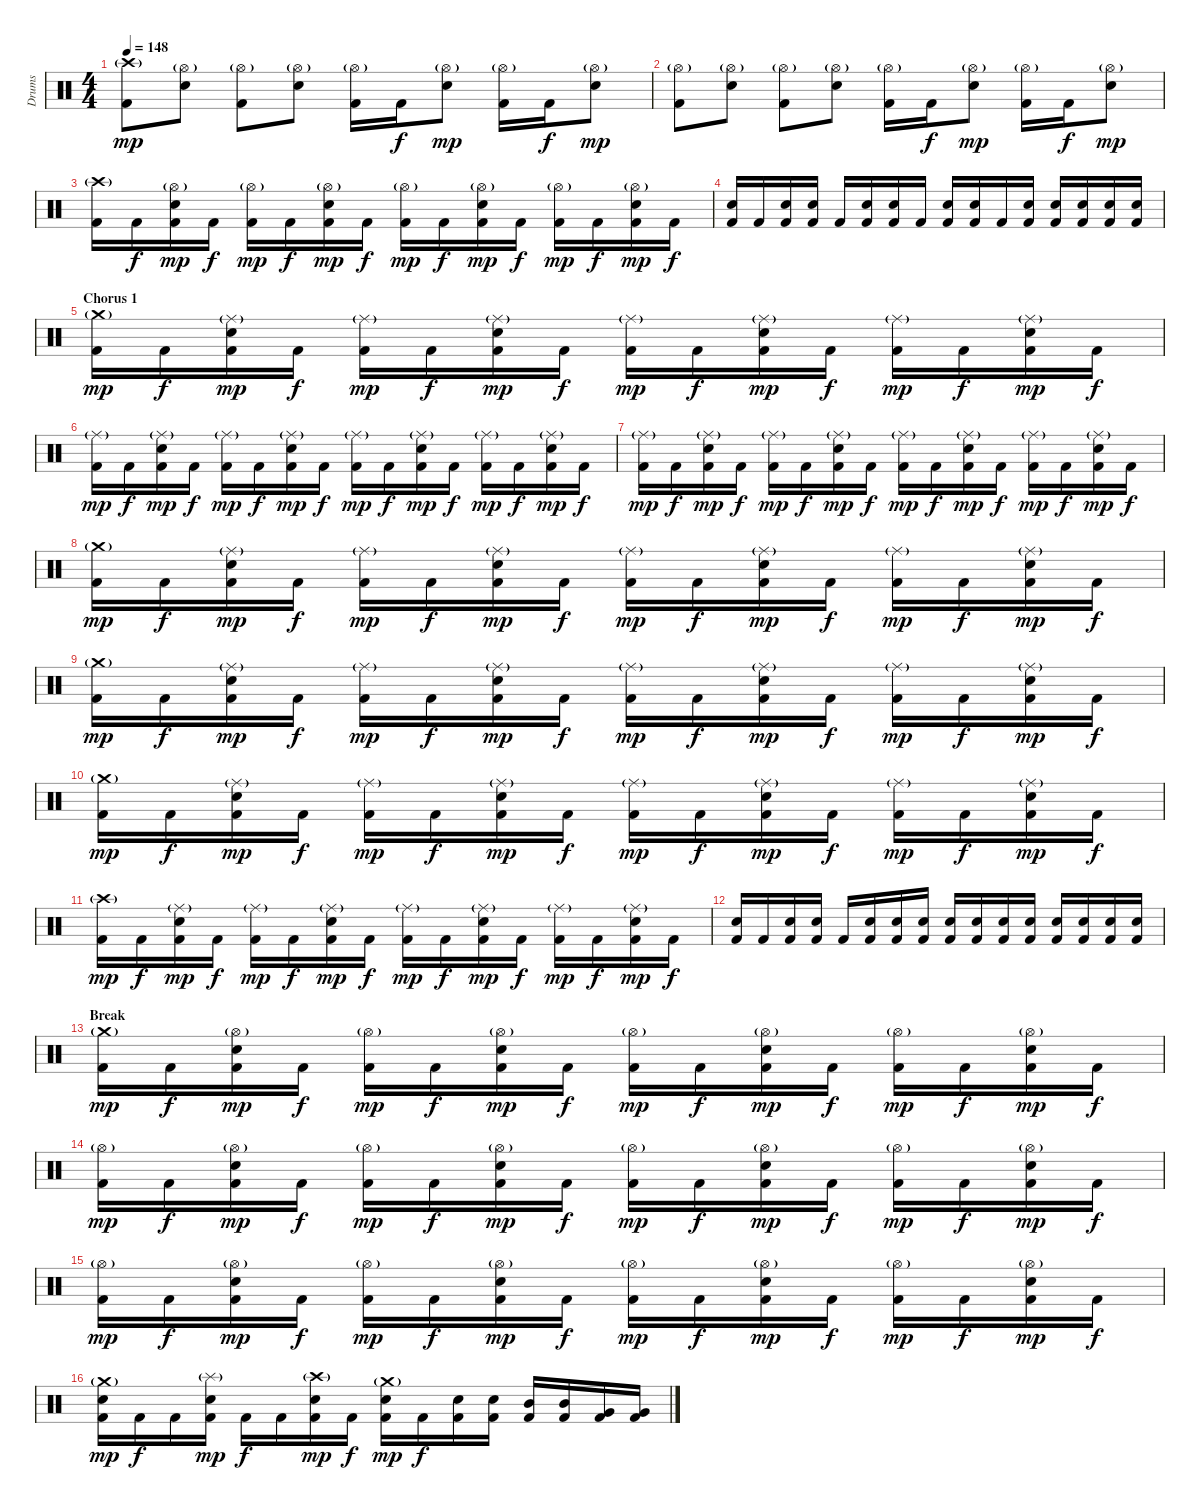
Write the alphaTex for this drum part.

\track ("Drums" "Drums") {instrument percussion}
\staff {score}
\articulation defaults
\ts (4 4)
\tempo 148
\clef neutral
\ks c
("Crash high (hit)"{g} "Kick (hit) 2").8{dy mp} ("Hi-Hat (open)"{g} "Snare (hit) 2").8 ("Hi-Hat (open)"{g} "Kick (hit) 2").8 ("Hi-Hat (open)"{g} "Snare (hit) 2").8 ("Hi-Hat (open)"{g} "Kick (hit) 2").16 "Kick (hit) 2".16{dy f} ("Hi-Hat (open)"{g} "Snare (hit) 2").8{dy mp} ("Hi-Hat (open)"{g} "Kick (hit) 2").16 "Kick (hit) 2".16{dy f} ("Hi-Hat (open)"{g} "Snare (hit) 2").8{dy mp} |
("Hi-Hat (open)"{g} "Kick (hit) 2").8 ("Hi-Hat (open)"{g} "Snare (hit) 2").8 ("Hi-Hat (open)"{g} "Kick (hit) 2").8 ("Hi-Hat (open)"{g} "Snare (hit) 2").8 ("Hi-Hat (open)"{g} "Kick (hit) 2").16 "Kick (hit) 2".16{dy f} ("Hi-Hat (open)"{g} "Snare (hit) 2").8{dy mp} ("Hi-Hat (open)"{g} "Kick (hit) 2").16 "Kick (hit) 2".16{dy f} ("Hi-Hat (open)"{g} "Snare (hit) 2").8{dy mp} |
("Crash high (hit)"{g} "Kick (hit) 2").16 "Kick (hit) 2".16{dy f} ("Hi-Hat (open)"{g} "Snare (hit) 2" "Kick (hit) 2").16{dy mp} "Kick (hit) 2".16{dy f} ("Hi-Hat (open)"{g} "Kick (hit) 2").16{dy mp} "Kick (hit) 2".16{dy f} ("Hi-Hat (open)"{g} "Snare (hit) 2" "Kick (hit) 2").16{dy mp} "Kick (hit) 2".16{dy f} ("Hi-Hat (open)"{g} "Kick (hit) 2").16{dy mp} "Kick (hit) 2".16{dy f} ("Hi-Hat (open)"{g} "Snare (hit) 2" "Kick (hit) 2").16{dy mp} "Kick (hit) 2".16{dy f} ("Hi-Hat (open)"{g} "Kick (hit) 2").16{dy mp} "Kick (hit) 2".16{dy f} ("Hi-Hat (open)"{g} "Snare (hit) 2" "Kick (hit) 2").16{dy mp} "Kick (hit) 2".16{dy f} |
("Snare (hit) 2" "Kick (hit) 2").16 "Kick (hit) 2".16 ("Snare (hit) 2" "Kick (hit) 2").16 ("Snare (hit) 2" "Kick (hit) 2").16 "Kick (hit) 2".16 ("Snare (hit) 2" "Kick (hit) 2").16 ("Snare (hit) 2" "Kick (hit) 2").16 "Kick (hit) 2".16 ("Snare (hit) 2" "Kick (hit) 2").16 ("Snare (hit) 2" "Kick (hit) 2").16 "Kick (hit) 2".16 ("Snare (hit) 2" "Kick (hit) 2").16 ("Snare (hit) 2" "Kick (hit) 2").16 ("Snare (hit) 2" "Kick (hit) 2").16 ("Snare (hit) 2" "Kick (hit) 2").16 ("Snare (hit) 2" "Kick (hit) 2").16 |
\section ("" "Chorus 1")
("Crash medium (hit)"{g} "Kick (hit) 2").16{dy mp} "Kick (hit) 2".16{dy f} ("Ride (middle)"{g} "Snare (hit) 2" "Kick (hit) 2").16{dy mp} "Kick (hit) 2".16{dy f} ("Ride (middle)"{g} "Kick (hit) 2").16{dy mp} "Kick (hit) 2".16{dy f} ("Ride (middle)"{g} "Snare (hit) 2" "Kick (hit) 2").16{dy mp} "Kick (hit) 2".16{dy f} ("Ride (middle)"{g} "Kick (hit) 2").16{dy mp} "Kick (hit) 2".16{dy f} ("Ride (middle)"{g} "Snare (hit) 2" "Kick (hit) 2").16{dy mp} "Kick (hit) 2".16{dy f} ("Ride (middle)"{g} "Kick (hit) 2").16{dy mp} "Kick (hit) 2".16{dy f} ("Ride (middle)"{g} "Snare (hit) 2" "Kick (hit) 2").16{dy mp} "Kick (hit) 2".16{dy f} |
("Ride (middle)"{g} "Kick (hit) 2").16{dy mp} "Kick (hit) 2".16{dy f} ("Ride (middle)"{g} "Snare (hit) 2" "Kick (hit) 2").16{dy mp} "Kick (hit) 2".16{dy f} ("Ride (middle)"{g} "Kick (hit) 2").16{dy mp} "Kick (hit) 2".16{dy f} ("Ride (middle)"{g} "Snare (hit) 2" "Kick (hit) 2").16{dy mp} "Kick (hit) 2".16{dy f} ("Ride (middle)"{g} "Kick (hit) 2").16{dy mp} "Kick (hit) 2".16{dy f} ("Ride (middle)"{g} "Snare (hit) 2" "Kick (hit) 2").16{dy mp} "Kick (hit) 2".16{dy f} ("Ride (middle)"{g} "Kick (hit) 2").16{dy mp} "Kick (hit) 2".16{dy f} ("Ride (middle)"{g} "Snare (hit) 2" "Kick (hit) 2").16{dy mp} "Kick (hit) 2".16{dy f} |
("Ride (middle)"{g} "Kick (hit) 2").16{dy mp} "Kick (hit) 2".16{dy f} ("Ride (middle)"{g} "Snare (hit) 2" "Kick (hit) 2").16{dy mp} "Kick (hit) 2".16{dy f} ("Ride (middle)"{g} "Kick (hit) 2").16{dy mp} "Kick (hit) 2".16{dy f} ("Ride (middle)"{g} "Snare (hit) 2" "Kick (hit) 2").16{dy mp} "Kick (hit) 2".16{dy f} ("Ride (middle)"{g} "Kick (hit) 2").16{dy mp} "Kick (hit) 2".16{dy f} ("Ride (middle)"{g} "Snare (hit) 2" "Kick (hit) 2").16{dy mp} "Kick (hit) 2".16{dy f} ("Ride (middle)"{g} "Kick (hit) 2").16{dy mp} "Kick (hit) 2".16{dy f} ("Ride (middle)"{g} "Snare (hit) 2" "Kick (hit) 2").16{dy mp} "Kick (hit) 2".16{dy f} |
("Crash medium (hit)"{g} "Kick (hit) 2").16{dy mp} "Kick (hit) 2".16{dy f} ("Ride (middle)"{g} "Snare (hit) 2" "Kick (hit) 2").16{dy mp} "Kick (hit) 2".16{dy f} ("Ride (middle)"{g} "Kick (hit) 2").16{dy mp} "Kick (hit) 2".16{dy f} ("Ride (middle)"{g} "Snare (hit) 2" "Kick (hit) 2").16{dy mp} "Kick (hit) 2".16{dy f} ("Ride (middle)"{g} "Kick (hit) 2").16{dy mp} "Kick (hit) 2".16{dy f} ("Ride (middle)"{g} "Snare (hit) 2" "Kick (hit) 2").16{dy mp} "Kick (hit) 2".16{dy f} ("Ride (middle)"{g} "Kick (hit) 2").16{dy mp} "Kick (hit) 2".16{dy f} ("Ride (middle)"{g} "Snare (hit) 2" "Kick (hit) 2").16{dy mp} "Kick (hit) 2".16{dy f} |
("Crash medium (hit)"{g} "Kick (hit) 2").16{dy mp} "Kick (hit) 2".16{dy f} ("Ride (middle)"{g} "Snare (hit) 2" "Kick (hit) 2").16{dy mp} "Kick (hit) 2".16{dy f} ("Ride (middle)"{g} "Kick (hit) 2").16{dy mp} "Kick (hit) 2".16{dy f} ("Ride (middle)"{g} "Snare (hit) 2" "Kick (hit) 2").16{dy mp} "Kick (hit) 2".16{dy f} ("Ride (middle)"{g} "Kick (hit) 2").16{dy mp} "Kick (hit) 2".16{dy f} ("Ride (middle)"{g} "Snare (hit) 2" "Kick (hit) 2").16{dy mp} "Kick (hit) 2".16{dy f} ("Ride (middle)"{g} "Kick (hit) 2").16{dy mp} "Kick (hit) 2".16{dy f} ("Ride (middle)"{g} "Snare (hit) 2" "Kick (hit) 2").16{dy mp} "Kick (hit) 2".16{dy f} |
("Crash medium (hit)"{g} "Kick (hit) 2").16{dy mp} "Kick (hit) 2".16{dy f} ("Ride (middle)"{g} "Snare (hit) 2" "Kick (hit) 2").16{dy mp} "Kick (hit) 2".16{dy f} ("Ride (middle)"{g} "Kick (hit) 2").16{dy mp} "Kick (hit) 2".16{dy f} ("Ride (middle)"{g} "Snare (hit) 2" "Kick (hit) 2").16{dy mp} "Kick (hit) 2".16{dy f} ("Ride (middle)"{g} "Kick (hit) 2").16{dy mp} "Kick (hit) 2".16{dy f} ("Ride (middle)"{g} "Snare (hit) 2" "Kick (hit) 2").16{dy mp} "Kick (hit) 2".16{dy f} ("Ride (middle)"{g} "Kick (hit) 2").16{dy mp} "Kick (hit) 2".16{dy f} ("Ride (middle)"{g} "Snare (hit) 2" "Kick (hit) 2").16{dy mp} "Kick (hit) 2".16{dy f} |
("Crash high (hit)"{g} "Kick (hit) 2").16{dy mp} "Kick (hit) 2".16{dy f} ("Ride (middle)"{g} "Snare (hit) 2" "Kick (hit) 2").16{dy mp} "Kick (hit) 2".16{dy f} ("Ride (middle)"{g} "Kick (hit) 2").16{dy mp} "Kick (hit) 2".16{dy f} ("Ride (middle)"{g} "Snare (hit) 2" "Kick (hit) 2").16{dy mp} "Kick (hit) 2".16{dy f} ("Ride (middle)"{g} "Kick (hit) 2").16{dy mp} "Kick (hit) 2".16{dy f} ("Ride (middle)"{g} "Snare (hit) 2" "Kick (hit) 2").16{dy mp} "Kick (hit) 2".16{dy f} ("Ride (middle)"{g} "Kick (hit) 2").16{dy mp} "Kick (hit) 2".16{dy f} ("Ride (middle)"{g} "Snare (hit) 2" "Kick (hit) 2").16{dy mp} "Kick (hit) 2".16{dy f} |
("Snare (hit) 2" "Kick (hit) 2").16 "Kick (hit) 2".16 ("Snare (hit) 2" "Kick (hit) 2").16 ("Snare (hit) 2" "Kick (hit) 2").16 "Kick (hit) 2".16 ("Snare (hit) 2" "Kick (hit) 2").16 ("Snare (hit) 2" "Kick (hit) 2").16 ("Snare (hit) 2" "Kick (hit) 2").16 ("Snare (hit) 2" "Kick (hit) 2").16 ("Snare (hit) 2" "Kick (hit) 2").16 ("Snare (hit) 2" "Kick (hit) 2").16 ("Snare (hit) 2" "Kick (hit) 2").16 ("Snare (hit) 2" "Kick (hit) 2").16 ("Snare (hit) 2" "Kick (hit) 2").16 ("Snare (hit) 2" "Kick (hit) 2").16 ("Snare (hit) 2" "Kick (hit) 2").16 |
\section ("" "Break")
("Crash medium (hit)"{g} "Kick (hit) 2").16{dy mp} "Kick (hit) 2".16{dy f} ("Hi-Hat (open)"{g} "Snare (hit) 2" "Kick (hit) 2").16{dy mp} "Kick (hit) 2".16{dy f} ("Hi-Hat (open)"{g} "Kick (hit) 2").16{dy mp} "Kick (hit) 2".16{dy f} ("Hi-Hat (open)"{g} "Snare (hit) 2" "Kick (hit) 2").16{dy mp} "Kick (hit) 2".16{dy f} ("Hi-Hat (open)"{g} "Kick (hit) 2").16{dy mp} "Kick (hit) 2".16{dy f} ("Hi-Hat (open)"{g} "Snare (hit) 2" "Kick (hit) 2").16{dy mp} "Kick (hit) 2".16{dy f} ("Hi-Hat (open)"{g} "Kick (hit) 2").16{dy mp} "Kick (hit) 2".16{dy f} ("Hi-Hat (open)"{g} "Snare (hit) 2" "Kick (hit) 2").16{dy mp} "Kick (hit) 2".16{dy f} |
("Hi-Hat (open)"{g} "Kick (hit) 2").16{dy mp} "Kick (hit) 2".16{dy f} ("Hi-Hat (open)"{g} "Snare (hit) 2" "Kick (hit) 2").16{dy mp} "Kick (hit) 2".16{dy f} ("Hi-Hat (open)"{g} "Kick (hit) 2").16{dy mp} "Kick (hit) 2".16{dy f} ("Hi-Hat (open)"{g} "Snare (hit) 2" "Kick (hit) 2").16{dy mp} "Kick (hit) 2".16{dy f} ("Hi-Hat (open)"{g} "Kick (hit) 2").16{dy mp} "Kick (hit) 2".16{dy f} ("Hi-Hat (open)"{g} "Snare (hit) 2" "Kick (hit) 2").16{dy mp} "Kick (hit) 2".16{dy f} ("Hi-Hat (open)"{g} "Kick (hit) 2").16{dy mp} "Kick (hit) 2".16{dy f} ("Hi-Hat (open)"{g} "Snare (hit) 2" "Kick (hit) 2").16{dy mp} "Kick (hit) 2".16{dy f} |
("Hi-Hat (open)"{g} "Kick (hit) 2").16{dy mp} "Kick (hit) 2".16{dy f} ("Hi-Hat (open)"{g} "Snare (hit) 2" "Kick (hit) 2").16{dy mp} "Kick (hit) 2".16{dy f} ("Hi-Hat (open)"{g} "Kick (hit) 2").16{dy mp} "Kick (hit) 2".16{dy f} ("Hi-Hat (open)"{g} "Snare (hit) 2" "Kick (hit) 2").16{dy mp} "Kick (hit) 2".16{dy f} ("Hi-Hat (open)"{g} "Kick (hit) 2").16{dy mp} "Kick (hit) 2".16{dy f} ("Hi-Hat (open)"{g} "Snare (hit) 2" "Kick (hit) 2").16{dy mp} "Kick (hit) 2".16{dy f} ("Hi-Hat (open)"{g} "Kick (hit) 2").16{dy mp} "Kick (hit) 2".16{dy f} ("Hi-Hat (open)"{g} "Snare (hit) 2" "Kick (hit) 2").16{dy mp} "Kick (hit) 2".16{dy f} |
("Crash medium (hit)"{g} "Snare (hit) 2" "Kick (hit) 2").16{dy mp} "Kick (hit) 2".16{dy f} "Kick (hit) 2".16 ("Splash (hit)"{g} "Snare (hit) 2" "Kick (hit) 2").16{dy mp} "Kick (hit) 2".16{dy f} "Kick (hit) 2".16 ("Crash high (hit)"{g} "Snare (hit) 2" "Kick (hit) 2").16{dy mp} "Kick (hit) 2".16{dy f} ("Crash medium (hit)"{g} "Snare (hit) 2" "Kick (hit) 2").16{dy mp} "Kick (hit) 2".16{dy f} ("Snare (hit) 2" "Kick (hit) 2").16 ("Snare (hit) 2" "Kick (hit) 2").16 ("Mid Tom (hit)" "Kick (hit) 2").16 ("Mid Tom (hit)" "Kick (hit) 2").16 ("Very Low Tom (hit)" "Kick (hit) 2").16 ("Very Low Tom (hit)" "Kick (hit) 2").16
